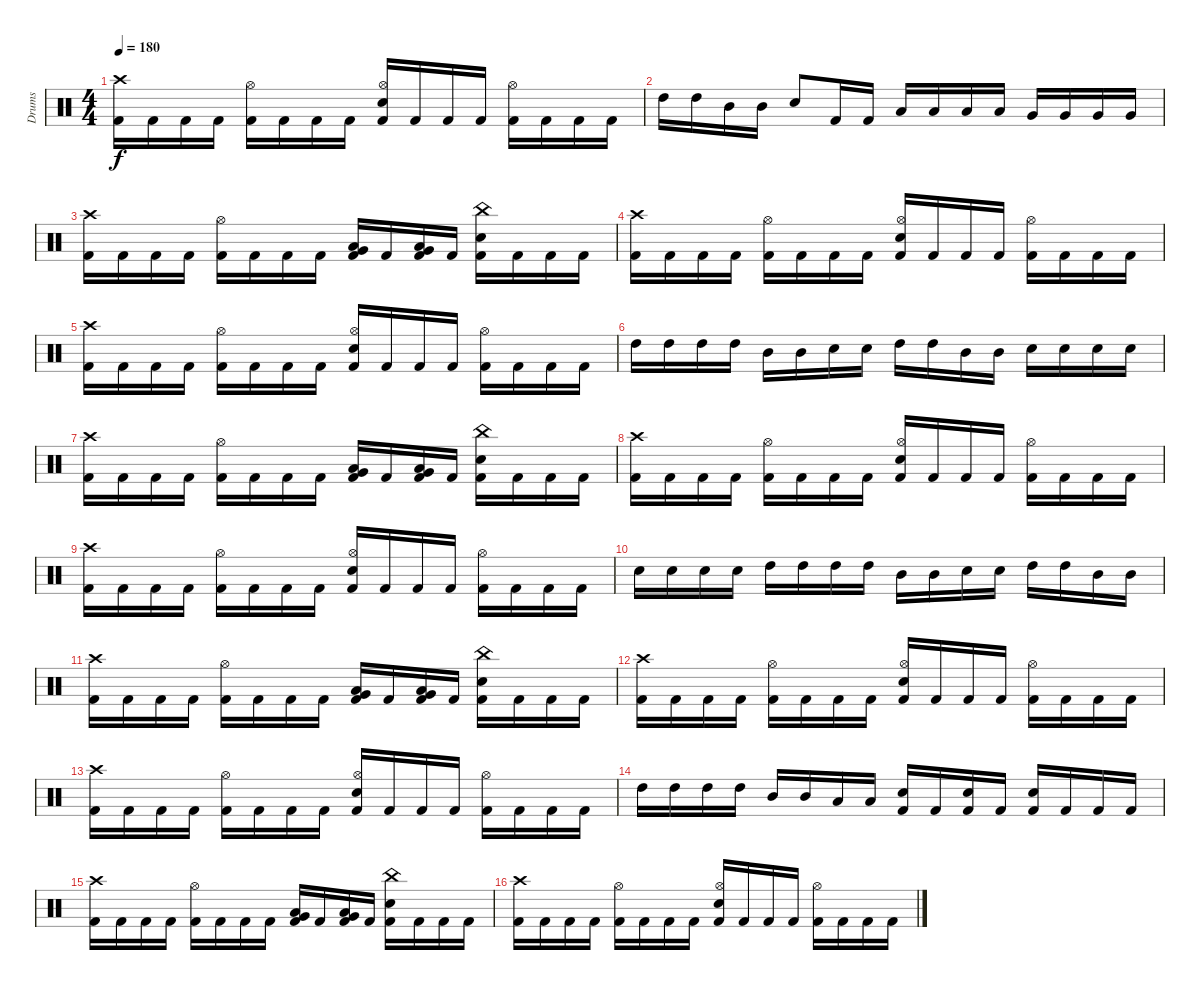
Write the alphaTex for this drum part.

\track ("Drums" "Drums") {instrument percussion}
\staff {score}
\articulation defaults
\ts (4 4)
\tempo 180
\clef neutral
\ks c
("Crash high (hit)" "Kick (hit) 2").16{dy f} "Kick (hit) 2".16 "Kick (hit) 2".16 "Kick (hit) 2".16 ("Hi-Hat (open)" "Kick (hit) 2").16 "Kick (hit) 2".16 "Kick (hit) 2".16 "Kick (hit) 2".16 ("Hi-Hat (open)" "Electric Snare (hit)" "Kick (hit) 2").16 "Kick (hit) 2".16 "Kick (hit) 2".16 "Kick (hit) 2".16 ("Hi-Hat (open)" "Kick (hit) 2").16 "Kick (hit) 2".16 "Kick (hit) 2".16 "Kick (hit) 2".16 |
"High Tom (hit)".16 "High Tom (hit)".16 "Mid Tom (hit)".16 "Mid Tom (hit)".16 "Electric Snare (hit)".8 "Kick (hit) 2".16 "Kick (hit) 2".16 "Low Tom (hit)".16 "Low Tom (hit)".16 "Low Tom (hit)".16 "Low Tom (hit)".16 "Very Low Tom (hit)".16 "Very Low Tom (hit)".16 "Very Low Tom (hit)".16 "Very Low Tom (hit)".16 |
("Crash high (hit)" "Kick (hit) 2").16{volume 4} "Kick (hit) 2".16 "Kick (hit) 2".16 "Kick (hit) 2".16 ("Hi-Hat (open)" "Kick (hit) 2").16 "Kick (hit) 2".16 "Kick (hit) 2".16 "Kick (hit) 2".16 ("Low Tom (hit)" "Very Low Tom (hit)" "Kick (hit) 2").16 "Kick (hit) 2".16 ("Low Tom (hit)" "Very Low Tom (hit)" "Kick (hit) 2").16 "Kick (hit) 2".16 ("China (hit)" "Electric Snare (hit)" "Kick (hit) 2").16 "Kick (hit) 2".16 "Kick (hit) 2".16 "Kick (hit) 2".16 |
("Crash high (hit)" "Kick (hit) 2").16 "Kick (hit) 2".16 "Kick (hit) 2".16 "Kick (hit) 2".16 ("Hi-Hat (open)" "Kick (hit) 2").16 "Kick (hit) 2".16 "Kick (hit) 2".16 "Kick (hit) 2".16 ("Hi-Hat (open)" "Electric Snare (hit)" "Kick (hit) 2").16 "Kick (hit) 2".16 "Kick (hit) 2".16 "Kick (hit) 2".16 ("Hi-Hat (open)" "Kick (hit) 2").16 "Kick (hit) 2".16 "Kick (hit) 2".16 "Kick (hit) 2".16 |
("Crash high (hit)" "Kick (hit) 2").16 "Kick (hit) 2".16 "Kick (hit) 2".16 "Kick (hit) 2".16 ("Hi-Hat (open)" "Kick (hit) 2").16 "Kick (hit) 2".16 "Kick (hit) 2".16 "Kick (hit) 2".16 ("Hi-Hat (open)" "Electric Snare (hit)" "Kick (hit) 2").16 "Kick (hit) 2".16 "Kick (hit) 2".16 "Kick (hit) 2".16 ("Hi-Hat (open)" "Kick (hit) 2").16 "Kick (hit) 2".16 "Kick (hit) 2".16 "Kick (hit) 2".16 |
"High Tom (hit)".16 "High Tom (hit)".16 "High Tom (hit)".16 "High Tom (hit)".16 "Mid Tom (hit)".16 "Mid Tom (hit)".16 "Electric Snare (hit)".16 "Electric Snare (hit)".16 "High Tom (hit)".16 "High Tom (hit)".16 "Mid Tom (hit)".16 "Mid Tom (hit)".16 "Electric Snare (hit)".16 "Electric Snare (hit)".16 "Electric Snare (hit)".16 "Electric Snare (hit)".16 |
("Crash high (hit)" "Kick (hit) 2").16{volume 0} "Kick (hit) 2".16 "Kick (hit) 2".16 "Kick (hit) 2".16 ("Hi-Hat (open)" "Kick (hit) 2").16 "Kick (hit) 2".16 "Kick (hit) 2".16 "Kick (hit) 2".16 ("Low Tom (hit)" "Very Low Tom (hit)" "Kick (hit) 2").16 "Kick (hit) 2".16 ("Low Tom (hit)" "Very Low Tom (hit)" "Kick (hit) 2").16 "Kick (hit) 2".16 ("China (hit)" "Electric Snare (hit)" "Kick (hit) 2").16 "Kick (hit) 2".16 "Kick (hit) 2".16 "Kick (hit) 2".16 |
("Crash high (hit)" "Kick (hit) 2").16 "Kick (hit) 2".16 "Kick (hit) 2".16 "Kick (hit) 2".16 ("Hi-Hat (open)" "Kick (hit) 2").16 "Kick (hit) 2".16 "Kick (hit) 2".16 "Kick (hit) 2".16 ("Hi-Hat (open)" "Electric Snare (hit)" "Kick (hit) 2").16 "Kick (hit) 2".16 "Kick (hit) 2".16 "Kick (hit) 2".16 ("Hi-Hat (open)" "Kick (hit) 2").16 "Kick (hit) 2".16 "Kick (hit) 2".16 "Kick (hit) 2".16 |
("Crash high (hit)" "Kick (hit) 2").16 "Kick (hit) 2".16 "Kick (hit) 2".16 "Kick (hit) 2".16 ("Hi-Hat (open)" "Kick (hit) 2").16 "Kick (hit) 2".16 "Kick (hit) 2".16 "Kick (hit) 2".16 ("Hi-Hat (open)" "Electric Snare (hit)" "Kick (hit) 2").16 "Kick (hit) 2".16 "Kick (hit) 2".16 "Kick (hit) 2".16 ("Hi-Hat (open)" "Kick (hit) 2").16 "Kick (hit) 2".16 "Kick (hit) 2".16 "Kick (hit) 2".16 |
"Electric Snare (hit)".16 "Electric Snare (hit)".16 "Electric Snare (hit)".16 "Electric Snare (hit)".16 "High Tom (hit)".16 "High Tom (hit)".16 "High Tom (hit)".16 "High Tom (hit)".16 "Mid Tom (hit)".16 "Mid Tom (hit)".16 "Electric Snare (hit)".16 "Electric Snare (hit)".16 "High Tom (hit)".16 "High Tom (hit)".16 "Mid Tom (hit)".16 "Mid Tom (hit)".16 |
("Crash high (hit)" "Kick (hit) 2").16 "Kick (hit) 2".16 "Kick (hit) 2".16 "Kick (hit) 2".16 ("Hi-Hat (open)" "Kick (hit) 2").16 "Kick (hit) 2".16 "Kick (hit) 2".16 "Kick (hit) 2".16 ("Low Tom (hit)" "Very Low Tom (hit)" "Kick (hit) 2").16 "Kick (hit) 2".16 ("Low Tom (hit)" "Very Low Tom (hit)" "Kick (hit) 2").16 "Kick (hit) 2".16 ("China (hit)" "Electric Snare (hit)" "Kick (hit) 2").16 "Kick (hit) 2".16 "Kick (hit) 2".16 "Kick (hit) 2".16 |
("Crash high (hit)" "Kick (hit) 2").16 "Kick (hit) 2".16 "Kick (hit) 2".16 "Kick (hit) 2".16 ("Hi-Hat (open)" "Kick (hit) 2").16 "Kick (hit) 2".16 "Kick (hit) 2".16 "Kick (hit) 2".16 ("Hi-Hat (open)" "Electric Snare (hit)" "Kick (hit) 2").16 "Kick (hit) 2".16 "Kick (hit) 2".16 "Kick (hit) 2".16 ("Hi-Hat (open)" "Kick (hit) 2").16 "Kick (hit) 2".16 "Kick (hit) 2".16 "Kick (hit) 2".16 |
("Crash high (hit)" "Kick (hit) 2").16 "Kick (hit) 2".16 "Kick (hit) 2".16 "Kick (hit) 2".16 ("Hi-Hat (open)" "Kick (hit) 2").16 "Kick (hit) 2".16 "Kick (hit) 2".16 "Kick (hit) 2".16 ("Hi-Hat (open)" "Electric Snare (hit)" "Kick (hit) 2").16 "Kick (hit) 2".16 "Kick (hit) 2".16 "Kick (hit) 2".16 ("Hi-Hat (open)" "Kick (hit) 2").16 "Kick (hit) 2".16 "Kick (hit) 2".16 "Kick (hit) 2".16 |
"High Tom (hit)".16 "High Tom (hit)".16 "High Tom (hit)".16 "High Tom (hit)".16 "Mid Tom (hit)".16 "Mid Tom (hit)".16 "Low Tom (hit)".16 "Low Tom (hit)".16 ("Electric Snare (hit)" "Kick (hit) 2").16 "Kick (hit) 2".16 ("Electric Snare (hit)" "Kick (hit) 2").16 "Kick (hit) 2".16 ("Electric Snare (hit)" "Kick (hit) 2").16 "Kick (hit) 2".16 "Kick (hit) 2".16 "Kick (hit) 2".16 |
("Crash high (hit)" "Kick (hit) 2").16 "Kick (hit) 2".16 "Kick (hit) 2".16 "Kick (hit) 2".16 ("Hi-Hat (open)" "Kick (hit) 2").16 "Kick (hit) 2".16 "Kick (hit) 2".16 "Kick (hit) 2".16 ("Low Tom (hit)" "Very Low Tom (hit)" "Kick (hit) 2").16 "Kick (hit) 2".16 ("Low Tom (hit)" "Very Low Tom (hit)" "Kick (hit) 2").16 "Kick (hit) 2".16 ("China (hit)" "Electric Snare (hit)" "Kick (hit) 2").16 "Kick (hit) 2".16 "Kick (hit) 2".16 "Kick (hit) 2".16 |
("Crash high (hit)" "Kick (hit) 2").16 "Kick (hit) 2".16 "Kick (hit) 2".16 "Kick (hit) 2".16 ("Hi-Hat (open)" "Kick (hit) 2").16 "Kick (hit) 2".16 "Kick (hit) 2".16 "Kick (hit) 2".16 ("Hi-Hat (open)" "Electric Snare (hit)" "Kick (hit) 2").16 "Kick (hit) 2".16 "Kick (hit) 2".16 "Kick (hit) 2".16 ("Hi-Hat (open)" "Kick (hit) 2").16 "Kick (hit) 2".16 "Kick (hit) 2".16 "Kick (hit) 2".16
